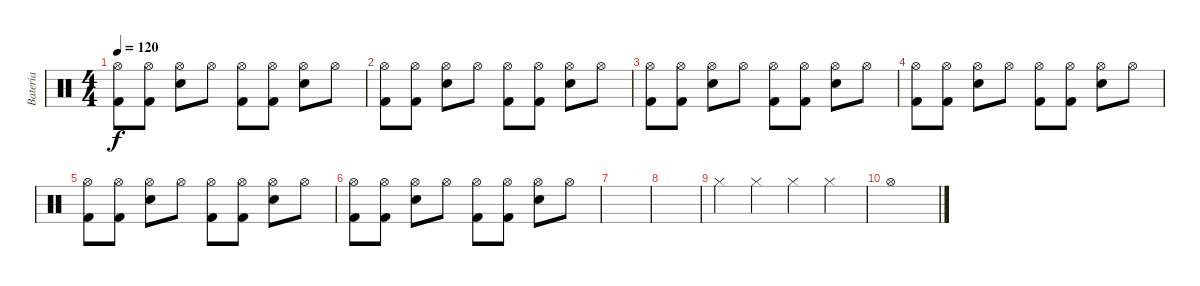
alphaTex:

\track ("Bateria" "Bateria") {instrument percussion}
\staff {score}
\articulation defaults
\ts (4 4)
\tempo 120
\clef neutral
\ks c
("Hi-Hat (open)" "Kick (hit) 2").8{dy f} ("Hi-Hat (open)" "Kick (hit) 2").8 ("Hi-Hat (open)" "Electric Snare (hit)").8 "Hi-Hat (open)".8 ("Hi-Hat (open)" "Kick (hit) 2").8 ("Hi-Hat (open)" "Kick (hit) 2").8 ("Hi-Hat (open)" "Electric Snare (hit)").8 "Hi-Hat (open)".8 |
("Hi-Hat (open)" "Kick (hit) 2").8 ("Hi-Hat (open)" "Kick (hit) 2").8 ("Hi-Hat (open)" "Electric Snare (hit)").8 "Hi-Hat (open)".8 ("Hi-Hat (open)" "Kick (hit) 2").8 ("Hi-Hat (open)" "Kick (hit) 2").8 ("Hi-Hat (open)" "Electric Snare (hit)").8 "Hi-Hat (open)".8 |
("Hi-Hat (open)" "Kick (hit) 2").8 ("Hi-Hat (open)" "Kick (hit) 2").8 ("Hi-Hat (open)" "Electric Snare (hit)").8 "Hi-Hat (open)".8 ("Hi-Hat (open)" "Kick (hit) 2").8 ("Hi-Hat (open)" "Kick (hit) 2").8 ("Hi-Hat (open)" "Electric Snare (hit)").8 "Hi-Hat (open)".8 |
("Hi-Hat (open)" "Kick (hit) 2").8 ("Hi-Hat (open)" "Kick (hit) 2").8 ("Hi-Hat (open)" "Electric Snare (hit)").8 "Hi-Hat (open)".8 ("Hi-Hat (open)" "Kick (hit) 2").8 ("Hi-Hat (open)" "Kick (hit) 2").8 ("Hi-Hat (open)" "Electric Snare (hit)").8 "Hi-Hat (open)".8 |
("Hi-Hat (open)" "Kick (hit) 2").8 ("Hi-Hat (open)" "Kick (hit) 2").8 ("Hi-Hat (open)" "Electric Snare (hit)").8 "Hi-Hat (open)".8 ("Hi-Hat (open)" "Kick (hit) 2").8 ("Hi-Hat (open)" "Kick (hit) 2").8 ("Hi-Hat (open)" "Electric Snare (hit)").8 "Hi-Hat (open)".8 |
("Hi-Hat (open)" "Kick (hit) 2").8 ("Hi-Hat (open)" "Kick (hit) 2").8 ("Hi-Hat (open)" "Electric Snare (hit)").8 "Hi-Hat (open)".8 ("Hi-Hat (open)" "Kick (hit) 2").8 ("Hi-Hat (open)" "Kick (hit) 2").8 ("Hi-Hat (open)" "Electric Snare (hit)").8 "Hi-Hat (open)".8 |
|
|
"Hi-Hat (closed)".4 "Hi-Hat (closed)".4 "Hi-Hat (closed)".4 "Hi-Hat (closed)".4 |
"Hi-Hat (open)".1
